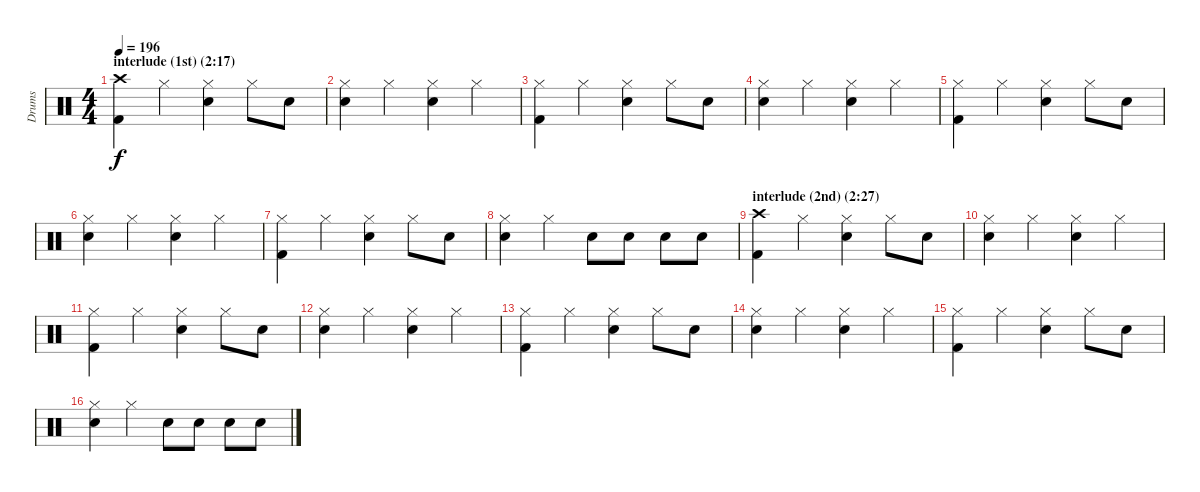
\track ("Drums" "Drums") {instrument percussion}
\staff {score}
\articulation defaults
\ts (4 4)
\section ("" "interlude (1st) (2:17)")
\tempo 196
\clef neutral
\ks c
("Crash high (hit)" "Kick (hit) 2").4{dy f} "Hi-Hat (closed)".4 ("Hi-Hat (closed)" "Snare (hit) 2").4 "Hi-Hat (closed)".8 "Snare (hit) 2".8 |
("Hi-Hat (closed)" "Snare (hit) 2").4 "Hi-Hat (closed)".4 ("Hi-Hat (closed)" "Snare (hit) 2").4 "Hi-Hat (closed)".4 |
("Hi-Hat (closed)" "Kick (hit) 2").4 "Hi-Hat (closed)".4 ("Hi-Hat (closed)" "Snare (hit) 2").4 "Hi-Hat (closed)".8 "Snare (hit) 2".8 |
("Hi-Hat (closed)" "Snare (hit) 2").4 "Hi-Hat (closed)".4 ("Hi-Hat (closed)" "Snare (hit) 2").4 "Hi-Hat (closed)".4 |
("Hi-Hat (closed)" "Kick (hit) 2").4 "Hi-Hat (closed)".4 ("Hi-Hat (closed)" "Snare (hit) 2").4 "Hi-Hat (closed)".8 "Snare (hit) 2".8 |
("Hi-Hat (closed)" "Snare (hit) 2").4 "Hi-Hat (closed)".4 ("Hi-Hat (closed)" "Snare (hit) 2").4 "Hi-Hat (closed)".4 |
("Hi-Hat (closed)" "Kick (hit) 2").4 "Hi-Hat (closed)".4 ("Hi-Hat (closed)" "Snare (hit) 2").4 "Hi-Hat (closed)".8 "Snare (hit) 2".8 |
("Hi-Hat (closed)" "Snare (hit) 2").4 "Hi-Hat (closed)".4 "Snare (hit) 2".8 "Snare (hit) 2".8 "Snare (hit) 2".8 "Snare (hit) 2".8 |
\section ("" "interlude (2nd) (2:27)")
("Crash high (hit)" "Kick (hit) 2").4 "Hi-Hat (closed)".4 ("Hi-Hat (closed)" "Snare (hit) 2").4 "Hi-Hat (closed)".8 "Snare (hit) 2".8 |
("Hi-Hat (closed)" "Snare (hit) 2").4 "Hi-Hat (closed)".4 ("Hi-Hat (closed)" "Snare (hit) 2").4 "Hi-Hat (closed)".4 |
("Hi-Hat (closed)" "Kick (hit) 2").4 "Hi-Hat (closed)".4 ("Hi-Hat (closed)" "Snare (hit) 2").4 "Hi-Hat (closed)".8 "Snare (hit) 2".8 |
("Hi-Hat (closed)" "Snare (hit) 2").4 "Hi-Hat (closed)".4 ("Hi-Hat (closed)" "Snare (hit) 2").4 "Hi-Hat (closed)".4 |
("Hi-Hat (closed)" "Kick (hit) 2").4 "Hi-Hat (closed)".4 ("Hi-Hat (closed)" "Snare (hit) 2").4 "Hi-Hat (closed)".8 "Snare (hit) 2".8 |
("Hi-Hat (closed)" "Snare (hit) 2").4 "Hi-Hat (closed)".4 ("Hi-Hat (closed)" "Snare (hit) 2").4 "Hi-Hat (closed)".4 |
("Hi-Hat (closed)" "Kick (hit) 2").4 "Hi-Hat (closed)".4 ("Hi-Hat (closed)" "Snare (hit) 2").4 "Hi-Hat (closed)".8 "Snare (hit) 2".8 |
("Hi-Hat (closed)" "Snare (hit) 2").4 "Hi-Hat (closed)".4 "Snare (hit) 2".8 "Snare (hit) 2".8 "Snare (hit) 2".8 "Snare (hit) 2".8
